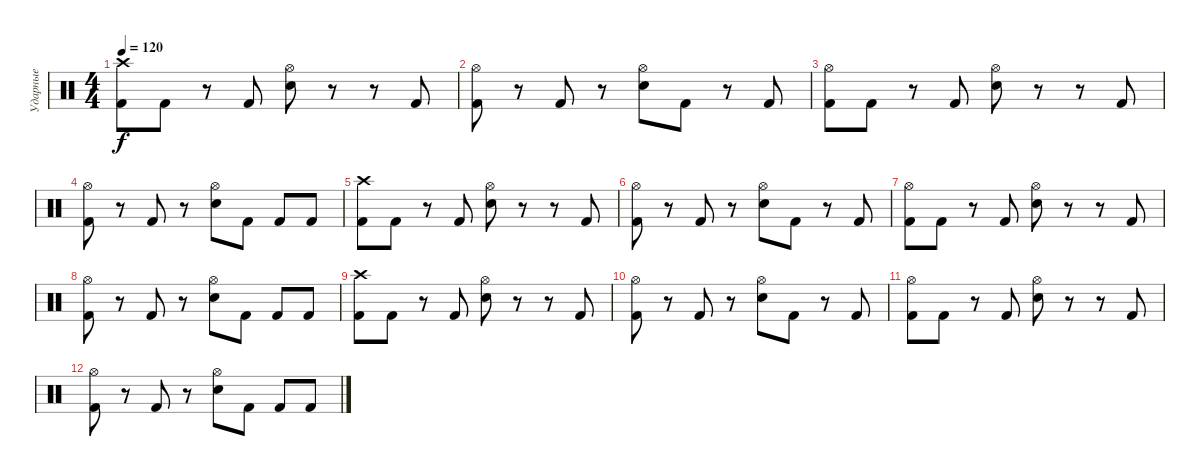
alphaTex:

\track ("Ударные" "Ударные") {instrument percussion}
\staff {score}
\articulation defaults
\ts (4 4)
\tempo 120
\clef neutral
\ks c
("Crash high (hit)" "Kick (hit) 2").8{dy f} "Kick (hit) 2".8 r.8 "Kick (hit) 2".8 ("Hi-Hat (open)" "Snare (hit) 2").8 r.8 r.8 "Kick (hit) 2".8 |
("Hi-Hat (open)" "Kick (hit) 2").8 r.8 "Kick (hit) 2".8 r.8 ("Hi-Hat (open)" "Snare (hit) 2").8 "Kick (hit) 2".8 r.8 "Kick (hit) 2".8 |
("Hi-Hat (open)" "Kick (hit) 2").8 "Kick (hit) 2".8 r.8 "Kick (hit) 2".8 ("Hi-Hat (open)" "Snare (hit) 2").8 r.8 r.8 "Kick (hit) 2".8 |
("Hi-Hat (open)" "Kick (hit) 2").8 r.8 "Kick (hit) 2".8 r.8 ("Hi-Hat (open)" "Snare (hit) 2").8 "Kick (hit) 2".8 "Kick (hit) 2".8 "Kick (hit) 2".8 |
("Crash high (hit)" "Kick (hit) 2").8 "Kick (hit) 2".8 r.8 "Kick (hit) 2".8 ("Hi-Hat (open)" "Snare (hit) 2").8 r.8 r.8 "Kick (hit) 2".8 |
("Hi-Hat (open)" "Kick (hit) 2").8 r.8 "Kick (hit) 2".8 r.8 ("Hi-Hat (open)" "Snare (hit) 2").8 "Kick (hit) 2".8 r.8 "Kick (hit) 2".8 |
("Hi-Hat (open)" "Kick (hit) 2").8 "Kick (hit) 2".8 r.8 "Kick (hit) 2".8 ("Hi-Hat (open)" "Snare (hit) 2").8 r.8 r.8 "Kick (hit) 2".8 |
("Hi-Hat (open)" "Kick (hit) 2").8 r.8 "Kick (hit) 2".8 r.8 ("Hi-Hat (open)" "Snare (hit) 2").8 "Kick (hit) 2".8 "Kick (hit) 2".8 "Kick (hit) 2".8 |
("Crash high (hit)" "Kick (hit) 2").8 "Kick (hit) 2".8 r.8 "Kick (hit) 2".8 ("Hi-Hat (open)" "Snare (hit) 2").8 r.8 r.8 "Kick (hit) 2".8 |
("Hi-Hat (open)" "Kick (hit) 2").8 r.8 "Kick (hit) 2".8 r.8 ("Hi-Hat (open)" "Snare (hit) 2").8 "Kick (hit) 2".8 r.8 "Kick (hit) 2".8 |
("Hi-Hat (open)" "Kick (hit) 2").8 "Kick (hit) 2".8 r.8 "Kick (hit) 2".8 ("Hi-Hat (open)" "Snare (hit) 2").8 r.8 r.8 "Kick (hit) 2".8 |
("Hi-Hat (open)" "Kick (hit) 2").8 r.8 "Kick (hit) 2".8 r.8 ("Hi-Hat (open)" "Snare (hit) 2").8 "Kick (hit) 2".8 "Kick (hit) 2".8 "Kick (hit) 2".8
